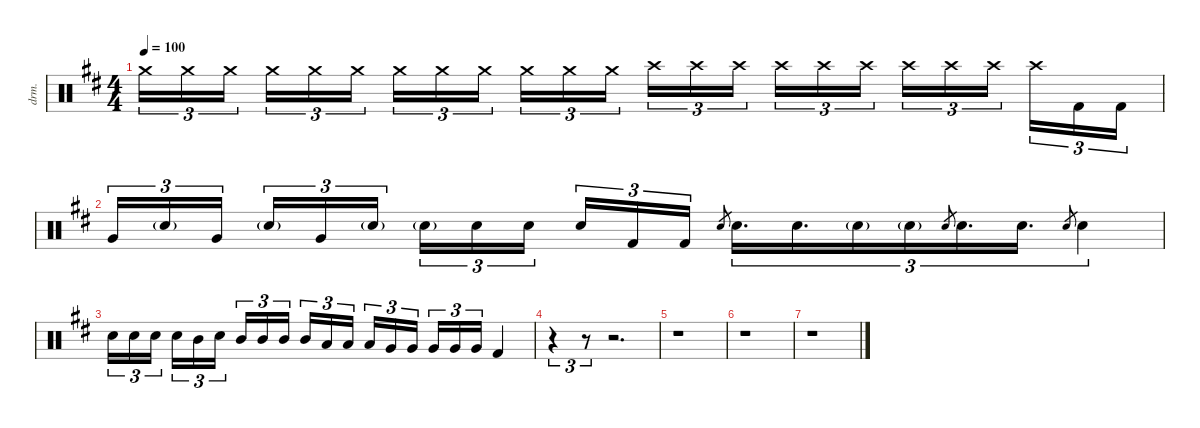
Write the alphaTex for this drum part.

\defaultSystemsLayout 4
\hideDynamics
\bracketExtendMode nobrackets
\track ("Atma Anur" "drm.") {solo instrument percussion}
\staff {score}
\articulation defaults
\ts (4 4)
\tempo 100
\clef neutral
\ks bminor "Crash medium (hit)"{acc forcenatural}.16{tu (3 2) dy p beam Down} "Crash medium (hit)"{acc forcenatural}.16{tu (3 2) beam Down} "Crash medium (hit)"{acc forcenatural}.16{tu (3 2) dy mp beam Down} "Crash medium (hit)"{acc forcenatural}.16{tu (3 2) beam Down} "Crash medium (hit)"{acc forcenatural}.16{tu (3 2) dy p beam Down} "Crash medium (hit)"{acc forcenatural}.16{tu (3 2) dy mf beam Down} "Crash medium (hit)"{acc forcenatural}.16{tu (3 2) beam Down} "Crash medium (hit)"{acc forcenatural}.16{tu (3 2) dy mp beam Down} "Crash medium (hit)"{acc forcenatural}.16{tu (3 2) dy mf beam Down} "Crash medium (hit)"{acc forcenatural}.16{tu (3 2) beam Down} "Crash medium (hit)"{acc forcenatural}.16{tu (3 2) dy f beam Down} "Crash medium (hit)"{acc forcenatural}.16{tu (3 2) dy ff beam Down} "Crash high (hit)"{acc forcenatural}.16{tu (3 2) dy mp beam Down} "Crash high (hit)"{acc forcenatural}.16{tu (3 2) dy p beam Down} "Crash high (hit)"{acc forcenatural}.16{tu (3 2) beam Down} "Crash high (hit)"{acc forcenatural}.16{tu (3 2) dy mp beam Down} "Crash high (hit)"{acc forcenatural}.16{tu (3 2) beam Down} "Crash high (hit)"{acc forcenatural}.16{tu (3 2) dy mf beam Down} "Crash high (hit)"{acc forcenatural}.16{tu (3 2) beam Down} "Crash high (hit)"{acc forcenatural}.16{tu (3 2) beam Down} "Crash high (hit)"{acc forcenatural}.16{tu (3 2) dy f beam Down} "Crash high (hit)"{acc forcenatural}.16{tu (3 2) beam Down} "Kick (hit) 2"{acc forcenatural}.16{tu (3 2) dy fff beam Down} "Kick (hit) 2"{acc forcenatural}.16{tu (3 2) beam Down}
|
"Very Low Tom (hit)"{acc forcenatural}.16{tu (3 2) beam Up} "Snare (hit) 2"{g acc forcenatural}.16{tu (3 2) dy ff beam Up} "Very Low Tom (hit)"{acc forcenatural}.16{tu (3 2) dy fff beam Up} "Snare (hit) 2"{g acc forcenatural}.16{tu (3 2) dy ff beam Up} "Very Low Tom (hit)"{acc forcenatural}.16{tu (3 2) dy fff beam Up} "Snare (hit) 2"{g acc forcenatural}.16{tu (3 2) dy ff beam Up} "Snare (hit) 2"{g acc forcenatural}.16{tu (3 2) beam Down} "Snare (hit) 2"{acc forcenatural}.16{tu (3 2) dy fff beam Down} "Snare (hit) 2"{acc forcenatural}.16{tu (3 2) beam Down} "Snare (hit) 2"{acc forcenatural}.16{tu (3 2) beam Up} "Kick (hit) 2"{acc forcenatural}.16{tu (3 2) beam Up} "Kick (hit) 2"{acc forcenatural}.16{tu (3 2) beam Up} "Electric Snare (hit)"{acc forcenatural}.8{gr dy ff beam Up} "Snare (hit) 2"{acc forcenatural}.16{d tu (3 2) dy fff beam Down} "Snare (hit) 2"{acc forcenatural}.16{d tu (3 2) beam Down} "Snare (hit) 2"{g acc forcenatural}.16{tu (3 2) dy ff beam Down} "Snare (hit) 2"{g acc forcenatural}.16{tu (3 2) beam Down} "Electric Snare (hit)"{acc forcenatural}.8{gr beam Up} "Snare (hit) 2"{acc forcenatural}.16{d tu (3 2) dy fff beam Down} "Snare (hit) 2"{acc forcenatural}.16{d tu (3 2) beam Down} "Electric Snare (hit)"{acc forcenatural}.8{gr dy ff beam Up} "Snare (hit) 2"{acc forcenatural}.4{tu (3 2) dy fff beam Down} |
"Snare (hit) 2"{acc forcenatural}.16{tu (3 2) beam Down} "Snare (hit) 2"{acc forcenatural}.16{tu (3 2) beam Down} "Snare (hit) 2"{acc forcenatural}.16{tu (3 2) beam Down} "Snare (hit) 2"{acc forcenatural}.16{tu (3 2) beam Down} "Mid Tom (hit)"{acc forcenatural}.16{tu (3 2) beam Down} "Snare (hit) 2"{acc forcenatural}.16{tu (3 2) beam Down} "Mid Tom (hit)"{acc forcenatural}.16{tu (3 2) beam Up} "Mid Tom (hit)"{acc forcenatural}.16{tu (3 2) beam Up} "Mid Tom (hit)"{acc forcenatural}.16{tu (3 2) beam Up} "Mid Tom (hit)"{acc forcenatural}.16{tu (3 2) beam Up} "Low Tom (hit)"{acc forcenatural}.16{tu (3 2) beam Up} "Low Tom (hit)"{acc forcenatural}.16{tu (3 2) beam Up} "Low Tom (hit)"{acc forcenatural}.16{tu (3 2) beam Up} "Very Low Tom (hit)"{acc forcenatural}.16{tu (3 2) beam Up} "Very Low Tom (hit)"{acc forcenatural}.16{tu (3 2) beam Up} "Very Low Tom (hit)"{acc forcenatural}.16{tu (3 2) beam Up} "Very Low Tom (hit)"{acc forcenatural}.16{tu (3 2) beam Up} "Very Low Tom (hit)"{acc forcenatural}.16{tu (3 2) beam Up} "Kick (hit) 2"{acc forcenatural}.4{beam Up} |
r.4{tu (3 2) beam Down} r.8{tu (3 2) beam Down} r.2{d beam Down} |
r.1{beam Down} |
r.1{beam Down} |
r.1{beam Down}
